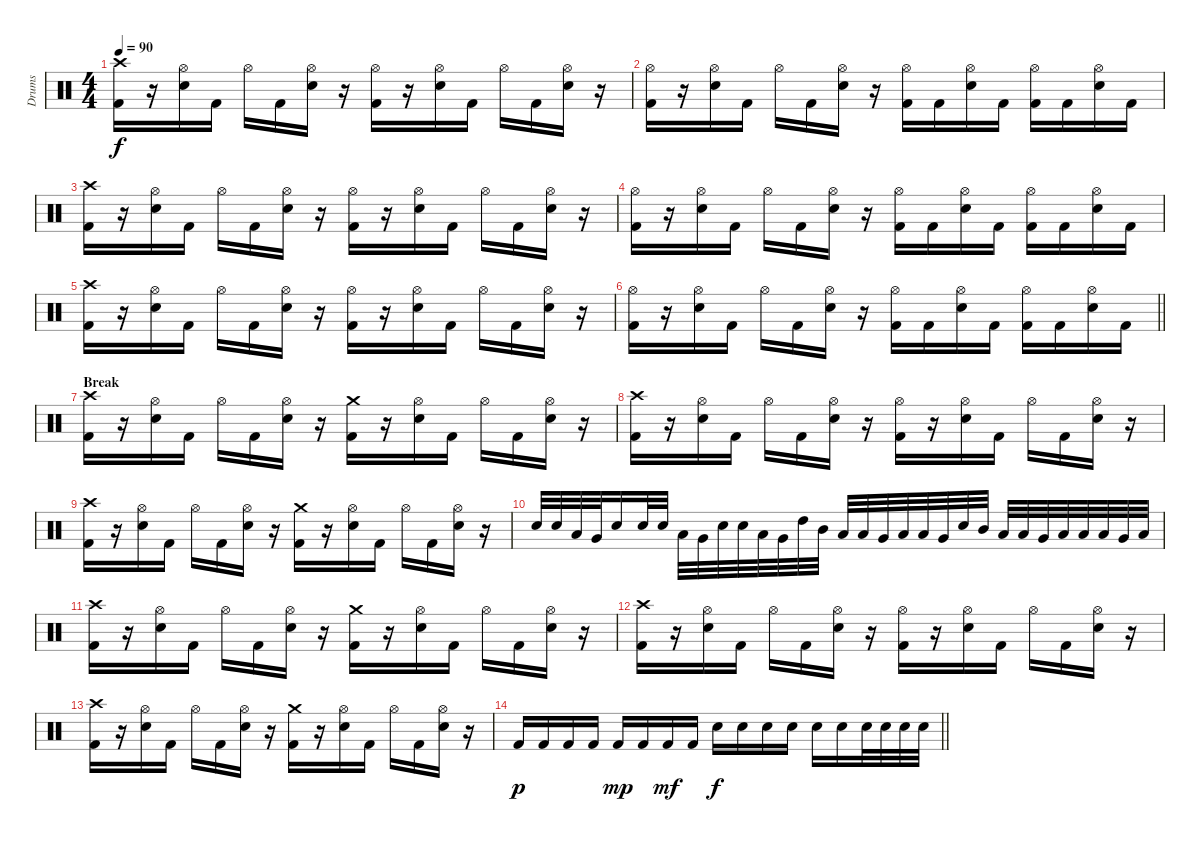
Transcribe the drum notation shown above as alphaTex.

\track ("Drums" "Drums") {instrument percussion}
\staff {score}
\articulation defaults
\ts (4 4)
\tempo 90
\clef neutral
\ks c
("Crash high (hit)" "Kick (hit) 2").16{dy f} r.16 ("Hi-Hat (open)" "Snare (hit) 2").16 "Kick (hit) 2".16 "Hi-Hat (open)".16 "Kick (hit) 2".16 ("Hi-Hat (open)" "Snare (hit) 2").16 r.16 ("Hi-Hat (open)" "Kick (hit) 2").16 r.16 ("Hi-Hat (open)" "Snare (hit) 2").16 "Kick (hit) 2".16 "Hi-Hat (open)".16 "Kick (hit) 2".16 ("Hi-Hat (open)" "Snare (hit) 2").16 r.16 |
("Hi-Hat (open)" "Kick (hit) 2").16 r.16 ("Hi-Hat (open)" "Snare (hit) 2").16 "Kick (hit) 2".16 "Hi-Hat (open)".16 "Kick (hit) 2".16 ("Hi-Hat (open)" "Snare (hit) 2").16 r.16 ("Hi-Hat (open)" "Kick (hit) 2").16 "Kick (hit) 2".16 ("Hi-Hat (open)" "Snare (hit) 2").16 "Kick (hit) 2".16 ("Hi-Hat (open)" "Kick (hit) 2").16 "Kick (hit) 2".16 ("Hi-Hat (open)" "Snare (hit) 2").16 "Kick (hit) 2".16 |
("Crash high (hit)" "Kick (hit) 2").16 r.16 ("Hi-Hat (open)" "Snare (hit) 2").16 "Kick (hit) 2".16 "Hi-Hat (open)".16 "Kick (hit) 2".16 ("Hi-Hat (open)" "Snare (hit) 2").16 r.16 ("Hi-Hat (open)" "Kick (hit) 2").16 r.16 ("Hi-Hat (open)" "Snare (hit) 2").16 "Kick (hit) 2".16 "Hi-Hat (open)".16 "Kick (hit) 2".16 ("Hi-Hat (open)" "Snare (hit) 2").16 r.16 |
("Hi-Hat (open)" "Kick (hit) 2").16 r.16 ("Hi-Hat (open)" "Snare (hit) 2").16 "Kick (hit) 2".16 "Hi-Hat (open)".16 "Kick (hit) 2".16 ("Hi-Hat (open)" "Snare (hit) 2").16 r.16 ("Hi-Hat (open)" "Kick (hit) 2").16 "Kick (hit) 2".16 ("Hi-Hat (open)" "Snare (hit) 2").16 "Kick (hit) 2".16 ("Hi-Hat (open)" "Kick (hit) 2").16 "Kick (hit) 2".16 ("Hi-Hat (open)" "Snare (hit) 2").16 "Kick (hit) 2".16 |
("Crash high (hit)" "Kick (hit) 2").16 r.16 ("Hi-Hat (open)" "Snare (hit) 2").16 "Kick (hit) 2".16 "Hi-Hat (open)".16 "Kick (hit) 2".16 ("Hi-Hat (open)" "Snare (hit) 2").16 r.16 ("Hi-Hat (open)" "Kick (hit) 2").16 r.16 ("Hi-Hat (open)" "Snare (hit) 2").16 "Kick (hit) 2".16 "Hi-Hat (open)".16 "Kick (hit) 2".16 ("Hi-Hat (open)" "Snare (hit) 2").16 r.16 |
\barLineRight lightlight
("Hi-Hat (open)" "Kick (hit) 2").16 r.16 ("Hi-Hat (open)" "Snare (hit) 2").16 "Kick (hit) 2".16 "Hi-Hat (open)".16 "Kick (hit) 2".16 ("Hi-Hat (open)" "Snare (hit) 2").16 r.16 ("Hi-Hat (open)" "Kick (hit) 2").16 "Kick (hit) 2".16 ("Hi-Hat (open)" "Snare (hit) 2").16 "Kick (hit) 2".16 ("Hi-Hat (open)" "Kick (hit) 2").16 "Kick (hit) 2".16 ("Hi-Hat (open)" "Snare (hit) 2").16 "Kick (hit) 2".16 |
\section ("" "Break")
("Crash high (hit)" "Kick (hit) 2").16 r.16 ("Hi-Hat (open)" "Snare (hit) 2").16 "Kick (hit) 2".16 "Hi-Hat (open)".16 "Kick (hit) 2".16 ("Hi-Hat (open)" "Snare (hit) 2").16 r.16 ("Crash medium (hit)" "Kick (hit) 2").16 r.16 ("Hi-Hat (open)" "Snare (hit) 2").16 "Kick (hit) 2".16 "Hi-Hat (open)".16 "Kick (hit) 2".16 ("Hi-Hat (open)" "Snare (hit) 2").16 r.16 |
("Crash high (hit)" "Kick (hit) 2").16 r.16 ("Hi-Hat (open)" "Snare (hit) 2").16 "Kick (hit) 2".16 "Hi-Hat (open)".16 "Kick (hit) 2".16 ("Hi-Hat (open)" "Snare (hit) 2").16 r.16 ("Hi-Hat (open)" "Kick (hit) 2").16 r.16 ("Hi-Hat (open)" "Snare (hit) 2").16 "Kick (hit) 2".16 "Hi-Hat (open)".16 "Kick (hit) 2".16 ("Hi-Hat (open)" "Snare (hit) 2").16 r.16 |
("Crash high (hit)" "Kick (hit) 2").16 r.16 ("Hi-Hat (open)" "Snare (hit) 2").16 "Kick (hit) 2".16 "Hi-Hat (open)".16 "Kick (hit) 2".16 ("Hi-Hat (open)" "Snare (hit) 2").16 r.16 ("Crash medium (hit)" "Kick (hit) 2").16 r.16 ("Hi-Hat (open)" "Snare (hit) 2").16 "Kick (hit) 2".16 "Hi-Hat (open)".16 "Kick (hit) 2".16 ("Hi-Hat (open)" "Snare (hit) 2").16 r.16 |
"Snare (hit) 2".32 "Snare (hit) 2".32 "Low Tom (hit)".32 "Very Low Tom (hit)".32 "Snare (hit) 2".16 "Snare (hit) 2".32 "Snare (hit) 2".32 "Low Tom (hit)".32 "Very Low Tom (hit)".32 "Snare (hit) 2".32 "Snare (hit) 2".32 "Low Tom (hit)".32 "Very Low Tom (hit)".32 "High Tom (hit)".32 "Mid Tom (hit)".32 "Low Tom (hit)".32 "Low Tom (hit)".32 "Very Low Tom (hit)".32 "Low Floor Tom (hit)".32 "Low Tom (hit)".32 "Very Low Tom (hit)".32 "Snare (hit) 2".32 "Mid Tom (hit)".32 "Low Tom (hit)".32 "Low Tom (hit)".32 "Very Low Tom (hit)".32 "Low Floor Tom (hit)".32 "Low Tom (hit)".32 "Low Tom (hit)".32 "Very Low Tom (hit)".32 "Low Floor Tom (hit)".32 |
("Crash high (hit)" "Kick (hit) 2").16 r.16 ("Hi-Hat (open)" "Snare (hit) 2").16 "Kick (hit) 2".16 "Hi-Hat (open)".16 "Kick (hit) 2".16 ("Hi-Hat (open)" "Snare (hit) 2").16 r.16 ("Crash medium (hit)" "Kick (hit) 2").16 r.16 ("Hi-Hat (open)" "Snare (hit) 2").16 "Kick (hit) 2".16 "Hi-Hat (open)".16 "Kick (hit) 2".16 ("Hi-Hat (open)" "Snare (hit) 2").16 r.16 |
("Crash high (hit)" "Kick (hit) 2").16 r.16 ("Hi-Hat (open)" "Snare (hit) 2").16 "Kick (hit) 2".16 "Hi-Hat (open)".16 "Kick (hit) 2".16 ("Hi-Hat (open)" "Snare (hit) 2").16 r.16 ("Hi-Hat (open)" "Kick (hit) 2").16 r.16 ("Hi-Hat (open)" "Snare (hit) 2").16 "Kick (hit) 2".16 "Hi-Hat (open)".16 "Kick (hit) 2".16 ("Hi-Hat (open)" "Snare (hit) 2").16 r.16 |
("Crash high (hit)" "Kick (hit) 2").16 r.16 ("Hi-Hat (open)" "Snare (hit) 2").16 "Kick (hit) 2".16 "Hi-Hat (open)".16 "Kick (hit) 2".16 ("Hi-Hat (open)" "Snare (hit) 2").16 r.16 ("Crash medium (hit)" "Kick (hit) 2").16 r.16 ("Hi-Hat (open)" "Snare (hit) 2").16 "Kick (hit) 2".16 "Hi-Hat (open)".16 "Kick (hit) 2".16 ("Hi-Hat (open)" "Snare (hit) 2").16 r.16 |
\barLineRight lightlight "Kick (hit) 2".16{dy p} "Kick (hit) 2".16 "Kick (hit) 2".16 "Kick (hit) 2".16 "Kick (hit) 2".16{dy mp} "Kick (hit) 2".16 "Kick (hit) 2".16{dy mf} "Kick (hit) 2".16 "Snare (hit) 2".16{dy f} "Snare (hit) 2".16 "Snare (hit) 2".16 "Snare (hit) 2".16 "Snare (hit) 2".16 "Snare (hit) 2".16 "Snare (hit) 2".32 "Snare (hit) 2".32 "Snare (hit) 2".32 "Snare (hit) 2".32
